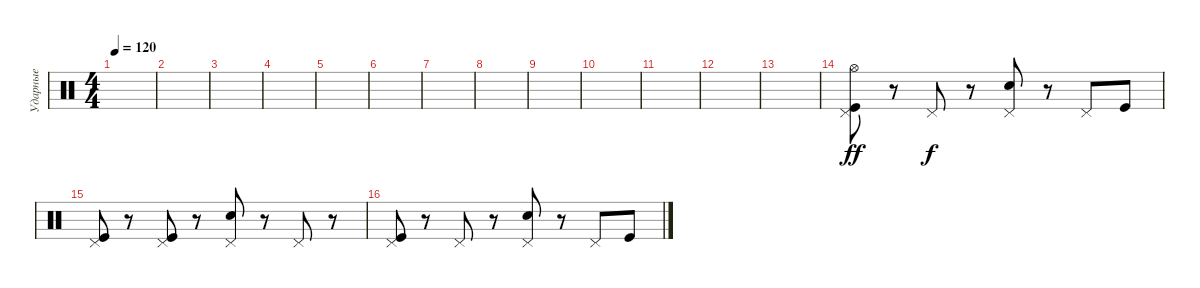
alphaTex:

\track ("Ударные" "Ударные") {instrument percussion}
\staff {score}
\articulation defaults
\ts (4 4)
\tempo 120
\clef neutral
\ks c
|
|
|
|
|
|
|
|
|
|
|
|
|
("Kick (hit)" "Pedal Hi-Hat (hit)" "Hi-Hat (open)").8{dy ff} r.8 "Pedal Hi-Hat (hit)".8{dy f} r.8 ("Snare (hit) 2" "Pedal Hi-Hat (hit)").8 r.8 "Pedal Hi-Hat (hit)".8 "Kick (hit)".8 |
("Pedal Hi-Hat (hit)" "Kick (hit)").8 r.8 ("Kick (hit)" "Pedal Hi-Hat (hit)").8 r.8 ("Snare (hit) 2" "Pedal Hi-Hat (hit)").8 r.8 "Pedal Hi-Hat (hit)".8 r.8 |
("Kick (hit)" "Pedal Hi-Hat (hit)").8 r.8 "Pedal Hi-Hat (hit)".8 r.8 ("Snare (hit) 2" "Pedal Hi-Hat (hit)").8 r.8 "Pedal Hi-Hat (hit)".8 "Kick (hit)".8
